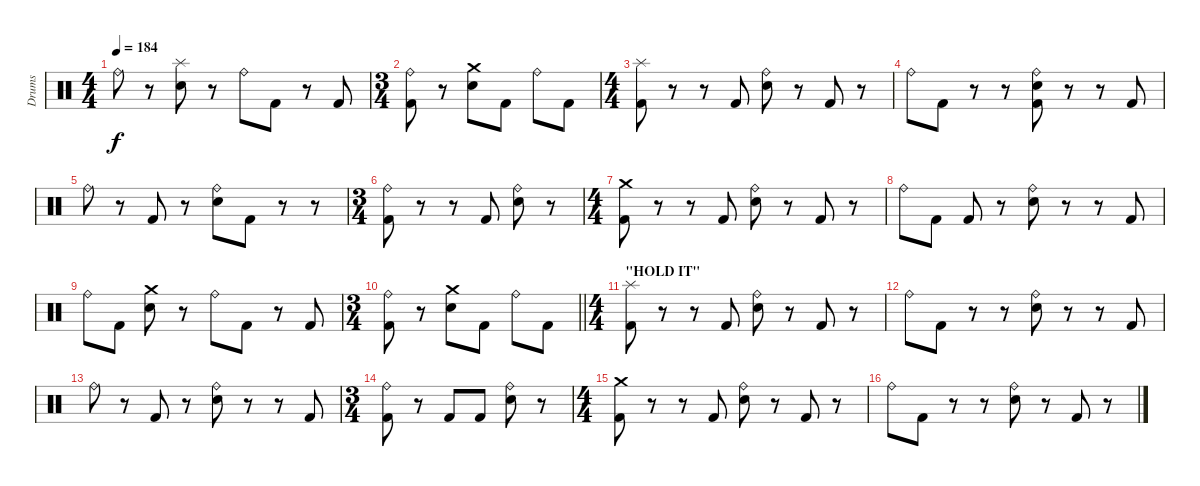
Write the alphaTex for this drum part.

\track ("Drums" "Drums") {instrument percussion}
\staff {score}
\articulation defaults
\ts (4 4)
\tempo 184
\clef neutral
\ks c "Ride (bell)".8{dy f}
r.8 ("Splash (hit)" "Snare (hit) 2").8 r.8 "Ride (bell)".8 "Kick (hit) 2".8 r.8 "Kick (hit) 2".8 |
\ts (3 4)
("Ride (bell)" "Kick (hit) 2").8 r.8 ("Crash medium (hit)" "Snare (hit) 2").8 "Kick (hit) 2".8 "Ride (bell)".8 "Kick (hit) 2".8 |
\ts (4 4)
("Splash (hit)" "Kick (hit) 2").8 r.8 r.8 "Kick (hit) 2".8 ("Ride (bell)" "Snare (hit) 2").8 r.8 "Kick (hit) 2".8 r.8 |
"Ride (bell)".8 "Kick (hit) 2".8 r.8 r.8 ("Ride (bell)" "Snare (hit) 2" "Kick (hit) 2").8 r.8 r.8 "Kick (hit) 2".8 |
"Ride (bell)".8 r.8 "Kick (hit) 2".8 r.8 ("Ride (bell)" "Snare (hit) 2").8 "Kick (hit) 2".8 r.8 r.8 |
\ts (3 4)
("Ride (bell)" "Kick (hit) 2").8 r.8 r.8 "Kick (hit) 2".8 ("Ride (bell)" "Snare (hit) 2").8 r.8 |
\ts (4 4)
("Crash medium (hit)" "Kick (hit) 2").8 r.8 r.8 "Kick (hit) 2".8 ("Ride (bell)" "Snare (hit) 2").8 r.8 "Kick (hit) 2".8 r.8 |
"Ride (bell)".8 "Kick (hit) 2".8 "Kick (hit) 2".8 r.8 ("Ride (bell)" "Snare (hit) 2").8 r.8 r.8 "Kick (hit) 2".8 |
"Ride (bell)".8 "Kick (hit) 2".8 ("Crash medium (hit)" "Snare (hit) 2").8 r.8 "Ride (bell)".8 "Kick (hit) 2".8 r.8 "Kick (hit) 2".8 |
\ts (3 4)
\barLineRight lightlight
("Ride (bell)" "Kick (hit) 2").8 r.8 ("Crash medium (hit)" "Snare (hit) 2").8 "Kick (hit) 2".8 "Ride (bell)".8 "Kick (hit) 2".8 |
\ts (4 4)
\section ("" "\"HOLD IT\"")
("Splash (hit)" "Kick (hit) 2").8 r.8 r.8 "Kick (hit) 2".8 ("Ride (bell)" "Snare (hit) 2").8 r.8 "Kick (hit) 2".8 r.8 |
"Ride (bell)".8 "Kick (hit) 2".8 r.8 r.8 ("Ride (bell)" "Snare (hit) 2").8 r.8 r.8 "Kick (hit) 2".8 |
"Ride (bell)".8 r.8 "Kick (hit) 2".8 r.8 ("Ride (bell)" "Snare (hit) 2").8 r.8 r.8 "Kick (hit) 2".8 |
\ts (3 4)
("Ride (bell)" "Kick (hit) 2").8 r.8 "Kick (hit) 2".8 "Kick (hit) 2".8 ("Ride (bell)" "Snare (hit) 2").8 r.8 |
\ts (4 4)
("Crash medium (hit)" "Kick (hit) 2").8 r.8 r.8 "Kick (hit) 2".8 ("Ride (bell)" "Snare (hit) 2").8 r.8 "Kick (hit) 2".8 r.8 |
"Ride (bell)".8 "Kick (hit) 2".8 r.8 r.8 ("Ride (bell)" "Snare (hit) 2").8 r.8 "Kick (hit) 2".8 r.8
